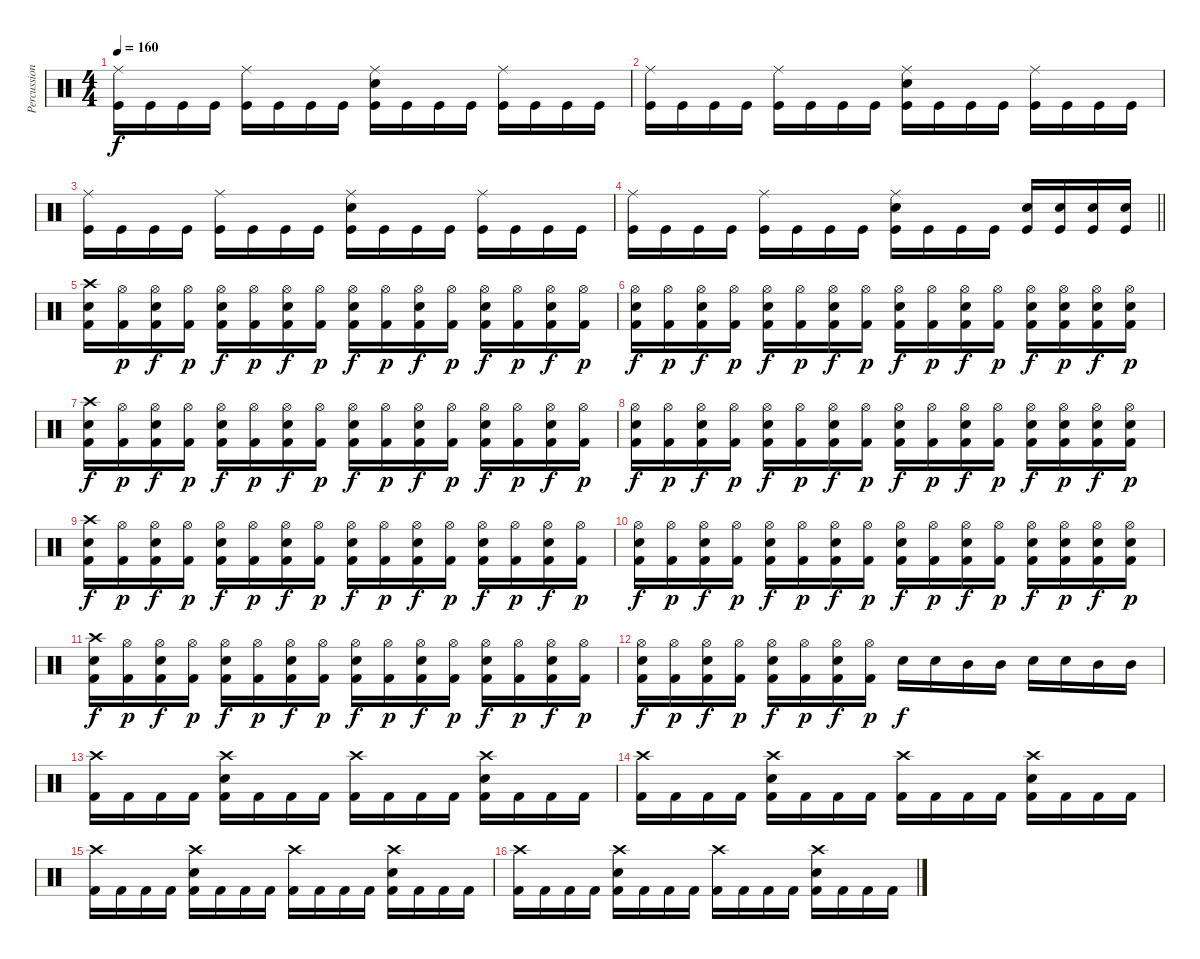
\track ("Percussioni" "Percussion") {instrument percussion}
\staff {score}
\articulation defaults
\ts (4 4)
\tempo 160
\clef neutral
\ks c
("Ride (middle)" "Kick (hit)").16{dy f} "Kick (hit)".16 "Kick (hit)".16 "Kick (hit)".16 ("Ride (middle)" "Kick (hit)").16 "Kick (hit)".16 "Kick (hit)".16 "Kick (hit)".16 ("Snare (hit) 2" "Ride (middle)" "Kick (hit)").16 "Kick (hit)".16 "Kick (hit)".16 "Kick (hit)".16 ("Ride (middle)" "Kick (hit)").16 "Kick (hit)".16 "Kick (hit)".16 "Kick (hit)".16 |
("Ride (middle)" "Kick (hit)").16 "Kick (hit)".16 "Kick (hit)".16 "Kick (hit)".16 ("Ride (middle)" "Kick (hit)").16 "Kick (hit)".16 "Kick (hit)".16 "Kick (hit)".16 ("Snare (hit) 2" "Ride (middle)" "Kick (hit)").16 "Kick (hit)".16 "Kick (hit)".16 "Kick (hit)".16 ("Ride (middle)" "Kick (hit)").16 "Kick (hit)".16 "Kick (hit)".16 "Kick (hit)".16 |
("Ride (middle)" "Kick (hit)").16 "Kick (hit)".16 "Kick (hit)".16 "Kick (hit)".16 ("Ride (middle)" "Kick (hit)").16 "Kick (hit)".16 "Kick (hit)".16 "Kick (hit)".16 ("Snare (hit) 2" "Ride (middle)" "Kick (hit)").16 "Kick (hit)".16 "Kick (hit)".16 "Kick (hit)".16 ("Ride (middle)" "Kick (hit)").16 "Kick (hit)".16 "Kick (hit)".16 "Kick (hit)".16 |
\barLineRight lightlight
("Ride (middle)" "Kick (hit)").16 "Kick (hit)".16 "Kick (hit)".16 "Kick (hit)".16 ("Ride (middle)" "Kick (hit)").16 "Kick (hit)".16 "Kick (hit)".16 "Kick (hit)".16 ("Snare (hit) 2" "Ride (middle)" "Kick (hit)").16 "Kick (hit)".16 "Kick (hit)".16 "Kick (hit)".16 ("Snare (hit) 2" "Kick (hit)").16 ("Snare (hit) 2" "Kick (hit)").16 ("Snare (hit) 2" "Kick (hit)").16 ("Snare (hit) 2" "Kick (hit)").16 |
("Crash high (hit)" "Electric Snare (hit)" "Kick (hit) 2").16 ("Hi-Hat (open)" "Kick (hit) 2").16{dy p} ("Hi-Hat (open)" "Electric Snare (hit)" "Kick (hit) 2").16{dy f} ("Hi-Hat (open)" "Kick (hit) 2").16{dy p} ("Hi-Hat (open)" "Electric Snare (hit)" "Kick (hit) 2").16{dy f} ("Hi-Hat (open)" "Kick (hit) 2").16{dy p} ("Hi-Hat (open)" "Electric Snare (hit)" "Kick (hit) 2").16{dy f} ("Hi-Hat (open)" "Kick (hit) 2").16{dy p} ("Hi-Hat (open)" "Electric Snare (hit)" "Kick (hit) 2").16{dy f} ("Hi-Hat (open)" "Kick (hit) 2").16{dy p} ("Hi-Hat (open)" "Electric Snare (hit)" "Kick (hit) 2").16{dy f} ("Hi-Hat (open)" "Kick (hit) 2").16{dy p} ("Hi-Hat (open)" "Electric Snare (hit)" "Kick (hit) 2").16{dy f} ("Hi-Hat (open)" "Kick (hit) 2").16{dy p} ("Hi-Hat (open)" "Electric Snare (hit)" "Kick (hit) 2").16{dy f} ("Hi-Hat (open)" "Kick (hit) 2").16{dy p} |
("Hi-Hat (open)" "Electric Snare (hit)" "Kick (hit) 2").16{dy f} ("Hi-Hat (open)" "Kick (hit) 2").16{dy p} ("Hi-Hat (open)" "Electric Snare (hit)" "Kick (hit) 2").16{dy f} ("Hi-Hat (open)" "Kick (hit) 2").16{dy p} ("Hi-Hat (open)" "Electric Snare (hit)" "Kick (hit) 2").16{dy f} ("Hi-Hat (open)" "Kick (hit) 2").16{dy p} ("Hi-Hat (open)" "Electric Snare (hit)" "Kick (hit) 2").16{dy f} ("Hi-Hat (open)" "Kick (hit) 2").16{dy p} ("Hi-Hat (open)" "Electric Snare (hit)" "Kick (hit) 2").16{dy f} ("Hi-Hat (open)" "Kick (hit) 2").16{dy p} ("Hi-Hat (open)" "Electric Snare (hit)" "Kick (hit) 2").16{dy f} ("Hi-Hat (open)" "Kick (hit) 2").16{dy p} ("Hi-Hat (open)" "Electric Snare (hit)" "Kick (hit) 2").16{dy f} ("Hi-Hat (open)" "Electric Snare (hit)" "Kick (hit) 2").16{dy p} ("Hi-Hat (open)" "Electric Snare (hit)" "Kick (hit) 2").16{dy f} ("Hi-Hat (open)" "Electric Snare (hit)" "Kick (hit) 2").16{dy p} |
("Crash high (hit)" "Electric Snare (hit)" "Kick (hit) 2").16{dy f} ("Hi-Hat (open)" "Kick (hit) 2").16{dy p} ("Hi-Hat (open)" "Electric Snare (hit)" "Kick (hit) 2").16{dy f} ("Hi-Hat (open)" "Kick (hit) 2").16{dy p} ("Hi-Hat (open)" "Electric Snare (hit)" "Kick (hit) 2").16{dy f} ("Hi-Hat (open)" "Kick (hit) 2").16{dy p} ("Hi-Hat (open)" "Electric Snare (hit)" "Kick (hit) 2").16{dy f} ("Hi-Hat (open)" "Kick (hit) 2").16{dy p} ("Hi-Hat (open)" "Electric Snare (hit)" "Kick (hit) 2").16{dy f} ("Hi-Hat (open)" "Kick (hit) 2").16{dy p} ("Hi-Hat (open)" "Electric Snare (hit)" "Kick (hit) 2").16{dy f} ("Hi-Hat (open)" "Kick (hit) 2").16{dy p} ("Hi-Hat (open)" "Electric Snare (hit)" "Kick (hit) 2").16{dy f} ("Hi-Hat (open)" "Kick (hit) 2").16{dy p} ("Hi-Hat (open)" "Electric Snare (hit)" "Kick (hit) 2").16{dy f} ("Hi-Hat (open)" "Kick (hit) 2").16{dy p} |
("Hi-Hat (open)" "Electric Snare (hit)" "Kick (hit) 2").16{dy f} ("Hi-Hat (open)" "Kick (hit) 2").16{dy p} ("Hi-Hat (open)" "Electric Snare (hit)" "Kick (hit) 2").16{dy f} ("Hi-Hat (open)" "Kick (hit) 2").16{dy p} ("Hi-Hat (open)" "Electric Snare (hit)" "Kick (hit) 2").16{dy f} ("Hi-Hat (open)" "Kick (hit) 2").16{dy p} ("Hi-Hat (open)" "Electric Snare (hit)" "Kick (hit) 2").16{dy f} ("Hi-Hat (open)" "Kick (hit) 2").16{dy p} ("Hi-Hat (open)" "Electric Snare (hit)" "Kick (hit) 2").16{dy f} ("Hi-Hat (open)" "Kick (hit) 2").16{dy p} ("Hi-Hat (open)" "Electric Snare (hit)" "Kick (hit) 2").16{dy f} ("Hi-Hat (open)" "Kick (hit) 2").16{dy p} ("Hi-Hat (open)" "Electric Snare (hit)" "Kick (hit) 2").16{dy f} ("Hi-Hat (open)" "Electric Snare (hit)" "Kick (hit) 2").16{dy p} ("Hi-Hat (open)" "Electric Snare (hit)" "Kick (hit) 2").16{dy f} ("Hi-Hat (open)" "Electric Snare (hit)" "Kick (hit) 2").16{dy p} |
("Crash high (hit)" "Electric Snare (hit)" "Kick (hit) 2").16{dy f} ("Hi-Hat (open)" "Kick (hit) 2").16{dy p} ("Hi-Hat (open)" "Electric Snare (hit)" "Kick (hit) 2").16{dy f} ("Hi-Hat (open)" "Kick (hit) 2").16{dy p} ("Hi-Hat (open)" "Electric Snare (hit)" "Kick (hit) 2").16{dy f} ("Hi-Hat (open)" "Kick (hit) 2").16{dy p} ("Hi-Hat (open)" "Electric Snare (hit)" "Kick (hit) 2").16{dy f} ("Hi-Hat (open)" "Kick (hit) 2").16{dy p} ("Hi-Hat (open)" "Electric Snare (hit)" "Kick (hit) 2").16{dy f} ("Hi-Hat (open)" "Kick (hit) 2").16{dy p} ("Hi-Hat (open)" "Electric Snare (hit)" "Kick (hit) 2").16{dy f} ("Hi-Hat (open)" "Kick (hit) 2").16{dy p} ("Hi-Hat (open)" "Electric Snare (hit)" "Kick (hit) 2").16{dy f} ("Hi-Hat (open)" "Kick (hit) 2").16{dy p} ("Hi-Hat (open)" "Electric Snare (hit)" "Kick (hit) 2").16{dy f} ("Hi-Hat (open)" "Kick (hit) 2").16{dy p} |
("Hi-Hat (open)" "Electric Snare (hit)" "Kick (hit) 2").16{dy f} ("Hi-Hat (open)" "Kick (hit) 2").16{dy p} ("Hi-Hat (open)" "Electric Snare (hit)" "Kick (hit) 2").16{dy f} ("Hi-Hat (open)" "Kick (hit) 2").16{dy p} ("Hi-Hat (open)" "Electric Snare (hit)" "Kick (hit) 2").16{dy f} ("Hi-Hat (open)" "Kick (hit) 2").16{dy p} ("Hi-Hat (open)" "Electric Snare (hit)" "Kick (hit) 2").16{dy f} ("Hi-Hat (open)" "Kick (hit) 2").16{dy p} ("Hi-Hat (open)" "Electric Snare (hit)" "Kick (hit) 2").16{dy f} ("Hi-Hat (open)" "Kick (hit) 2").16{dy p} ("Hi-Hat (open)" "Electric Snare (hit)" "Kick (hit) 2").16{dy f} ("Hi-Hat (open)" "Kick (hit) 2").16{dy p} ("Hi-Hat (open)" "Electric Snare (hit)" "Kick (hit) 2").16{dy f} ("Hi-Hat (open)" "Electric Snare (hit)" "Kick (hit) 2").16{dy p} ("Hi-Hat (open)" "Electric Snare (hit)" "Kick (hit) 2").16{dy f} ("Hi-Hat (open)" "Electric Snare (hit)" "Kick (hit) 2").16{dy p} |
("Crash high (hit)" "Electric Snare (hit)" "Kick (hit) 2").16{dy f} ("Hi-Hat (open)" "Kick (hit) 2").16{dy p} ("Hi-Hat (open)" "Electric Snare (hit)" "Kick (hit) 2").16{dy f} ("Hi-Hat (open)" "Kick (hit) 2").16{dy p} ("Hi-Hat (open)" "Electric Snare (hit)" "Kick (hit) 2").16{dy f} ("Hi-Hat (open)" "Kick (hit) 2").16{dy p} ("Hi-Hat (open)" "Electric Snare (hit)" "Kick (hit) 2").16{dy f} ("Hi-Hat (open)" "Kick (hit) 2").16{dy p} ("Hi-Hat (open)" "Electric Snare (hit)" "Kick (hit) 2").16{dy f} ("Hi-Hat (open)" "Kick (hit) 2").16{dy p} ("Hi-Hat (open)" "Electric Snare (hit)" "Kick (hit) 2").16{dy f} ("Hi-Hat (open)" "Kick (hit) 2").16{dy p} ("Hi-Hat (open)" "Electric Snare (hit)" "Kick (hit) 2").16{dy f} ("Hi-Hat (open)" "Kick (hit) 2").16{dy p} ("Hi-Hat (open)" "Electric Snare (hit)" "Kick (hit) 2").16{dy f} ("Hi-Hat (open)" "Kick (hit) 2").16{dy p} |
("Hi-Hat (open)" "Electric Snare (hit)" "Kick (hit) 2").16{dy f} ("Hi-Hat (open)" "Kick (hit) 2").16{dy p} ("Hi-Hat (open)" "Electric Snare (hit)" "Kick (hit) 2").16{dy f} ("Hi-Hat (open)" "Kick (hit) 2").16{dy p} ("Hi-Hat (open)" "Electric Snare (hit)" "Kick (hit) 2").16{dy f} ("Hi-Hat (open)" "Kick (hit) 2").16{dy p} ("Hi-Hat (open)" "Electric Snare (hit)" "Kick (hit) 2").16{dy f} ("Hi-Hat (open)" "Kick (hit) 2").16{dy p} "Electric Snare (hit)".16{dy f} "Electric Snare (hit)".16 "Mid Tom (hit)".16 "Mid Tom (hit)".16 "Electric Snare (hit)".16 "Electric Snare (hit)".16 "Mid Tom (hit)".16 "Mid Tom (hit)".16 |
("Crash high (hit)" "Kick (hit) 2").16 "Kick (hit) 2".16 "Kick (hit) 2".16 "Kick (hit) 2".16 ("Crash high (hit)" "Electric Snare (hit)" "Kick (hit) 2").16 "Kick (hit) 2".16 "Kick (hit) 2".16 "Kick (hit) 2".16 ("Crash high (hit)" "Kick (hit) 2").16 "Kick (hit) 2".16 "Kick (hit) 2".16 "Kick (hit) 2".16 ("Crash high (hit)" "Electric Snare (hit)" "Kick (hit) 2").16 "Kick (hit) 2".16 "Kick (hit) 2".16 "Kick (hit) 2".16 |
("Crash high (hit)" "Kick (hit) 2").16 "Kick (hit) 2".16 "Kick (hit) 2".16 "Kick (hit) 2".16 ("Crash high (hit)" "Electric Snare (hit)" "Kick (hit) 2").16 "Kick (hit) 2".16 "Kick (hit) 2".16 "Kick (hit) 2".16 ("Crash high (hit)" "Kick (hit) 2").16 "Kick (hit) 2".16 "Kick (hit) 2".16 "Kick (hit) 2".16 ("Crash high (hit)" "Electric Snare (hit)" "Kick (hit) 2").16 "Kick (hit) 2".16 "Kick (hit) 2".16 "Kick (hit) 2".16 |
("Crash high (hit)" "Kick (hit) 2").16 "Kick (hit) 2".16 "Kick (hit) 2".16 "Kick (hit) 2".16 ("Crash high (hit)" "Electric Snare (hit)" "Kick (hit) 2").16 "Kick (hit) 2".16 "Kick (hit) 2".16 "Kick (hit) 2".16 ("Crash high (hit)" "Kick (hit) 2").16 "Kick (hit) 2".16 "Kick (hit) 2".16 "Kick (hit) 2".16 ("Crash high (hit)" "Electric Snare (hit)" "Kick (hit) 2").16 "Kick (hit) 2".16 "Kick (hit) 2".16 "Kick (hit) 2".16 |
("Crash high (hit)" "Kick (hit) 2").16 "Kick (hit) 2".16 "Kick (hit) 2".16 "Kick (hit) 2".16 ("Crash high (hit)" "Electric Snare (hit)" "Kick (hit) 2").16 "Kick (hit) 2".16 "Kick (hit) 2".16 "Kick (hit) 2".16 ("Crash high (hit)" "Kick (hit) 2").16 "Kick (hit) 2".16 "Kick (hit) 2".16 "Kick (hit) 2".16 ("Crash high (hit)" "Electric Snare (hit)" "Kick (hit) 2").16 "Kick (hit) 2".16 "Kick (hit) 2".16 "Kick (hit) 2".16
